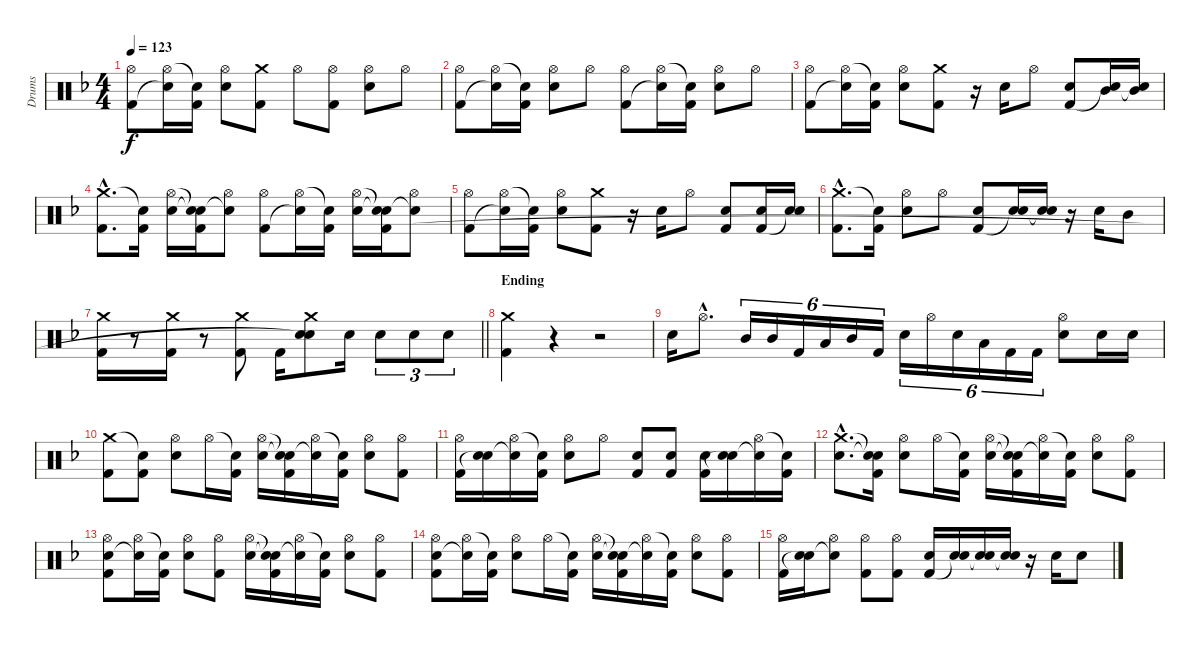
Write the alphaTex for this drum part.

\track ("Drums" "Drums") {instrument percussion}
\staff {score}
\articulation defaults
\ts (4 4)
\tempo 123
\clef neutral
\ks dminor
("Hi-Hat (open)" "Kick (hit) 2").8{dy f} ("Hi-Hat (open)" "Snare (hit)"{t}).16 ("Snare (hit)"{t} "Kick (hit) 2").16 ("Hi-Hat (open)" "Electric Snare (hit)").8 ("Crash medium (hit)" "Kick (hit) 2").8 "Hi-Hat (open)".8 ("Hi-Hat (open)" "Kick (hit) 2").8 ("Hi-Hat (open)" "Electric Snare (hit)").8 "Hi-Hat (open)".8 |
("Hi-Hat (open)" "Kick (hit) 2").8 ("Hi-Hat (open)" "Snare (hit)"{t}).16 ("Snare (hit)"{t} "Kick (hit) 2").16 ("Hi-Hat (open)" "Electric Snare (hit)").8 "Hi-Hat (open)".8 ("Hi-Hat (open)" "Kick (hit) 2").8 ("Hi-Hat (open)" "Snare (hit)"{t}).16 ("Snare (hit)"{t} "Kick (hit) 2").16 ("Hi-Hat (open)" "Electric Snare (hit)").8 "Hi-Hat (open)".8 |
("Hi-Hat (open)" "Kick (hit) 2").8 ("Hi-Hat (open)" "Snare (hit)"{t}).16 ("Snare (hit)"{t} "Kick (hit) 2").16 ("Hi-Hat (open)" "Electric Snare (hit)").8 ("Crash medium (hit)" "Kick (hit) 2").8 r.16 "Electric Snare (hit)".16 "Hi-Hat (open)".8 ("Electric Snare (hit)" "Kick (hit) 2").8 ("Mid Tom (hit)" "Snare (hit)"{t}).16 ("Mid Tom (hit)" "Snare (hit)"{t}).16 |
("Crash medium (hit)"{hac} "Kick (hit) 2"{hac}).8{d} ("Snare (hit)"{t} "Kick (hit) 2").16 ("Hi-Hat (open)" "Electric Snare (hit)").16 ("Snare (hit)"{t} "Snare (hit)"{t} "Kick (hit) 2").16 ("Hi-Hat (open)" "Snare (hit)"{t}).8 ("Hi-Hat (open)" "Kick (hit) 2").8 ("Hi-Hat (open)" "Snare (hit)"{t}).16 ("Snare (hit)"{t} "Kick (hit) 2").16 ("Hi-Hat (open)" "Electric Snare (hit)").16 ("Snare (hit)"{t} "Snare (hit)"{t} "Kick (hit) 2").16 ("Hi-Hat (open)" "Snare (hit)"{t}).8 |
("Hi-Hat (open)" "Kick (hit) 2").8 ("Hi-Hat (open)" "Snare (hit)"{t}).16 ("Snare (hit)"{t} "Kick (hit) 2").16 ("Hi-Hat (open)" "Electric Snare (hit)").8 ("Crash medium (hit)" "Kick (hit) 2").8 r.16 "Electric Snare (hit)".16 "Hi-Hat (open)".8 ("Electric Snare (hit)" "Kick (hit) 2").8 ("Electric Snare (hit)" "Kick (hit) 2").16 ("Electric Snare (hit)" "Snare (hit)"{t}).16 |
("Crash medium (hit)"{hac} "Kick (hit) 2"{hac}).8{d} ("Snare (hit)"{t} "Kick (hit) 2").16 ("Hi-Hat (open)" "Electric Snare (hit)").8 "Hi-Hat (open)".8 ("Electric Snare (hit)" "Kick (hit) 2").8 ("Electric Snare (hit)" "Snare (hit)"{t}).16 ("Electric Snare (hit)" "Snare (hit)"{t}).16 r.16 "Electric Snare (hit)".16 "Mid Tom (hit)".8 |
\barLineRight lightlight
("Crash medium (hit)" "Kick (hit) 2").16 r.8 ("Crash medium (hit)" "Kick (hit) 2").16 r.8 ("Crash medium (hit)" "Kick (hit) 2").8 "Kick (hit) 2".16 ("Crash medium (hit)" "Electric Snare (hit)" "Snare (hit)"{t}).8 "Electric Snare (hit)".16 "Electric Snare (hit)".8{tu (3 2)} "Electric Snare (hit)".8{tu (3 2)} "Electric Snare (hit)".8{tu (3 2)} |
\section ("" "Ending")
("Crash medium (hit)" "Kick (hit) 2").4 r.4 r.2 |
"Electric Snare (hit)".16 "Hi-Hat (open)"{hac}.8{d} "Mid Tom (hit)".16{tu (6 4)} "Mid Tom (hit)".16{tu (6 4)} "Kick (hit) 2".16{tu (6 4)} "Low Floor Tom (hit)".16{tu (6 4)} "Mid Tom (hit)".16{tu (6 4)} "Kick (hit) 2".16{tu (6 4)} "Electric Snare (hit)".16{tu (6 4)} "Hi-Hat (open)".16{tu (6 4)} "Electric Snare (hit)".16{tu (6 4)} "Low Tom (hit)".16{tu (6 4)} "Kick (hit) 2".16{tu (6 4)} "Kick (hit) 2".16{tu (6 4)} ("Hi-Hat (open)" "Electric Snare (hit)").8 "Electric Snare (hit)".16 "Electric Snare (hit)".16 |
("Crash medium (hit)" "Kick (hit) 2").8 ("Snare (hit)"{t} "Kick (hit) 2").8 ("Hi-Hat (open)" "Electric Snare (hit)").8 "Hi-Hat (open)".16 ("Snare (hit)"{t} "Kick (hit) 2").16 ("Hi-Hat (open)" "Electric Snare (hit)").16 ("Snare (hit)"{t} "Snare (hit)"{t} "Kick (hit) 2").16 ("Hi-Hat (open)" "Snare (hit)"{t}).16 ("Snare (hit)"{t} "Kick (hit) 2").16 ("Hi-Hat (open)" "Electric Snare (hit)").8 ("Hi-Hat (open)" "Kick (hit) 2").8 |
("Hi-Hat (open)" "Kick (hit) 2").16 ("Electric Snare (hit)" "Snare (hit)"{t}).16 ("Hi-Hat (open)" "Snare (hit)"{t}).16 ("Snare (hit)"{t} "Kick (hit) 2").16 ("Hi-Hat (open)" "Electric Snare (hit)").8 "Hi-Hat (open)".8 ("Electric Snare (hit)" "Kick (hit) 2").8 ("Electric Snare (hit)" "Kick (hit) 2").8 ("Electric Snare (hit)" "Kick (hit) 2").16 ("Electric Snare (hit)" "Snare (hit)"{t}).16 ("Hi-Hat (open)" "Snare (hit)"{t}).16 ("Snare (hit)"{t} "Kick (hit) 2").16 |
("Crash medium (hit)"{hac} "Electric Snare (hit)"{hac}).8{d} ("Snare (hit)"{t} "Snare (hit)"{t} "Kick (hit) 2").16 ("Hi-Hat (open)" "Electric Snare (hit)").8 "Hi-Hat (open)".16 ("Snare (hit)"{t} "Kick (hit) 2").16 ("Hi-Hat (open)" "Electric Snare (hit)").16 ("Snare (hit)"{t} "Snare (hit)"{t} "Kick (hit) 2").16 ("Hi-Hat (open)" "Snare (hit)"{t}).16 ("Snare (hit)"{t} "Kick (hit) 2").16 ("Hi-Hat (open)" "Electric Snare (hit)").8 ("Hi-Hat (open)" "Kick (hit) 2").8 |
("Hi-Hat (open)" "Electric Snare (hit)" "Kick (hit) 2").8 ("Hi-Hat (open)" "Snare (hit)"{t}).16 ("Snare (hit)"{t} "Kick (hit) 2").16 ("Hi-Hat (open)" "Electric Snare (hit)").8 ("Hi-Hat (open)" "Kick (hit) 2").8 ("Hi-Hat (open)" "Electric Snare (hit)").16 ("Snare (hit)"{t} "Snare (hit)"{t} "Kick (hit) 2").16 ("Hi-Hat (open)" "Snare (hit)"{t}).16 ("Snare (hit)"{t} "Kick (hit) 2").16 ("Hi-Hat (open)" "Electric Snare (hit)").8 ("Hi-Hat (open)" "Kick (hit) 2").8 |
("Hi-Hat (open)" "Electric Snare (hit)" "Kick (hit) 2").8 ("Hi-Hat (open)" "Snare (hit)"{t}).16 ("Snare (hit)"{t} "Kick (hit) 2").16 ("Hi-Hat (open)" "Electric Snare (hit)").8 "Hi-Hat (open)".16 ("Snare (hit)"{t} "Kick (hit) 2").16 ("Hi-Hat (open)" "Electric Snare (hit)").16 ("Snare (hit)"{t} "Snare (hit)"{t} "Kick (hit) 2").16 ("Hi-Hat (open)" "Snare (hit)"{t}).16 ("Snare (hit)"{t} "Kick (hit) 2").16 ("Hi-Hat (open)" "Electric Snare (hit)").8 ("Hi-Hat (open)" "Kick (hit) 2").8 |
("Hi-Hat (open)" "Kick (hit) 2").16 ("Electric Snare (hit)" "Snare (hit)"{t}).16 ("Hi-Hat (open)" "Snare (hit)"{t}).8 ("Hi-Hat (open)" "Kick (hit) 2").8 ("Hi-Hat (open)" "Kick (hit) 2").8 ("Electric Snare (hit)" "Kick (hit) 2").16 ("Electric Snare (hit)" "Snare (hit)"{t}).16 ("Electric Snare (hit)" "Snare (hit)"{t}).16 ("Electric Snare (hit)" "Snare (hit)"{t}).16 r.16 "Electric Snare (hit)".16 "Electric Snare (hit)".8
